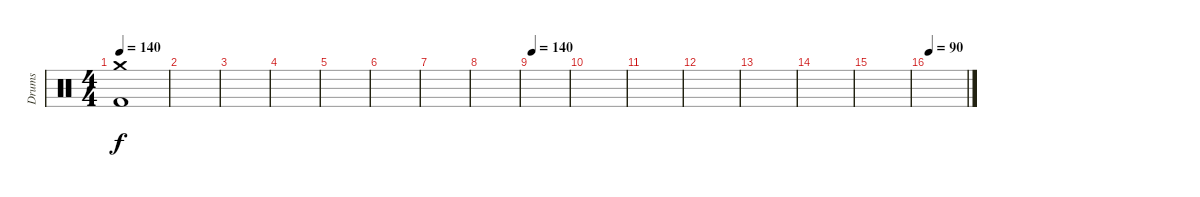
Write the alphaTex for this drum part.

\track ("Drums" "Drums") {instrument percussion}
\staff {score}
\articulation defaults
\ts (4 4)
\tempo 140
\clef neutral
\ks c
("Crash medium (hit)" "Kick (hit) 2").1{dy f} |
|
|
|
|
|
|
|
\tempo 140
|
|
|
|
|
|
|
\tempo 90
